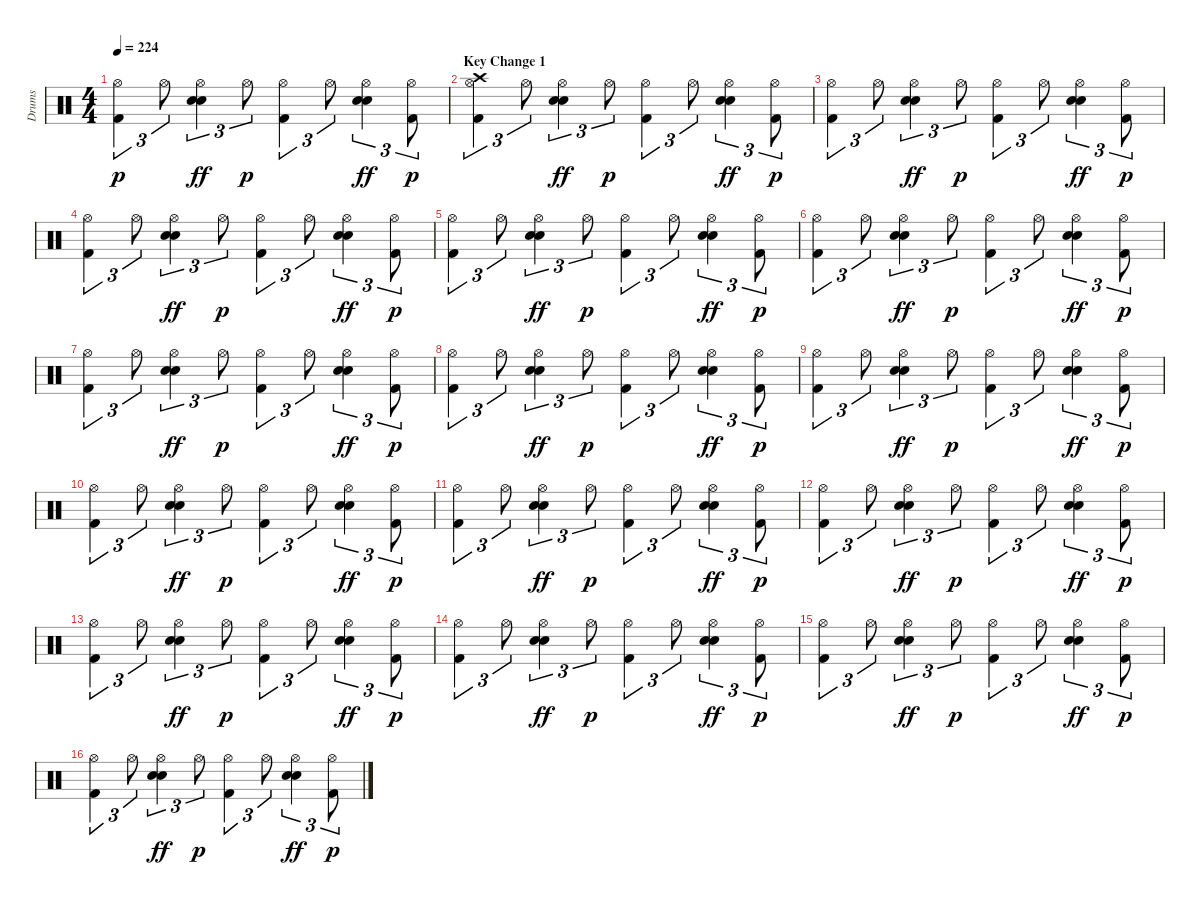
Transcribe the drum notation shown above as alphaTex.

\track ("Drums" "Drums") {instrument percussion}
\staff {score}
\articulation defaults
\ts (4 4)
\tempo 224
\clef neutral
\ks c
("Hi-Hat (open)" "Kick (hit) 2").4{tu (3 2) dy p} "Hi-Hat (open)".8{tu (3 2)} ("Hand Clap (hit)" "Hi-Hat (open)" "Snare (hit) 2").4{tu (3 2) dy ff} "Hi-Hat (open)".8{tu (3 2) dy p} ("Hi-Hat (open)" "Kick (hit) 2").4{tu (3 2)} "Hi-Hat (open)".8{tu (3 2)} ("Hand Clap (hit)" "Hi-Hat (open)" "Snare (hit) 2").4{tu (3 2) dy ff} ("Hi-Hat (open)" "Kick (hit) 2").8{tu (3 2) dy p} |
\section ("" "Key Change 1")
("Crash high (hit)" "Hi-Hat (open)" "Kick (hit) 2").4{tu (3 2)} "Hi-Hat (open)".8{tu (3 2)} ("Hand Clap (hit)" "Hi-Hat (open)" "Snare (hit) 2").4{tu (3 2) dy ff} "Hi-Hat (open)".8{tu (3 2) dy p} ("Hi-Hat (open)" "Kick (hit) 2").4{tu (3 2)} "Hi-Hat (open)".8{tu (3 2)} ("Hand Clap (hit)" "Hi-Hat (open)" "Snare (hit) 2").4{tu (3 2) dy ff} ("Hi-Hat (open)" "Kick (hit) 2").8{tu (3 2) dy p} |
("Hi-Hat (open)" "Kick (hit) 2").4{tu (3 2)} "Hi-Hat (open)".8{tu (3 2)} ("Hand Clap (hit)" "Hi-Hat (open)" "Snare (hit) 2").4{tu (3 2) dy ff} "Hi-Hat (open)".8{tu (3 2) dy p} ("Hi-Hat (open)" "Kick (hit) 2").4{tu (3 2)} "Hi-Hat (open)".8{tu (3 2)} ("Hand Clap (hit)" "Hi-Hat (open)" "Snare (hit) 2").4{tu (3 2) dy ff} ("Hi-Hat (open)" "Kick (hit) 2").8{tu (3 2) dy p} |
("Hi-Hat (open)" "Kick (hit) 2").4{tu (3 2)} "Hi-Hat (open)".8{tu (3 2)} ("Hand Clap (hit)" "Hi-Hat (open)" "Snare (hit) 2").4{tu (3 2) dy ff} "Hi-Hat (open)".8{tu (3 2) dy p} ("Hi-Hat (open)" "Kick (hit) 2").4{tu (3 2)} "Hi-Hat (open)".8{tu (3 2)} ("Hand Clap (hit)" "Hi-Hat (open)" "Snare (hit) 2").4{tu (3 2) dy ff} ("Hi-Hat (open)" "Kick (hit) 2").8{tu (3 2) dy p} |
("Hi-Hat (open)" "Kick (hit) 2").4{tu (3 2)} "Hi-Hat (open)".8{tu (3 2)} ("Hand Clap (hit)" "Hi-Hat (open)" "Snare (hit) 2").4{tu (3 2) dy ff} "Hi-Hat (open)".8{tu (3 2) dy p} ("Hi-Hat (open)" "Kick (hit) 2").4{tu (3 2)} "Hi-Hat (open)".8{tu (3 2)} ("Hand Clap (hit)" "Hi-Hat (open)" "Snare (hit) 2").4{tu (3 2) dy ff} ("Hi-Hat (open)" "Kick (hit) 2").8{tu (3 2) dy p} |
("Hi-Hat (open)" "Kick (hit) 2").4{tu (3 2)} "Hi-Hat (open)".8{tu (3 2)} ("Hand Clap (hit)" "Hi-Hat (open)" "Snare (hit) 2").4{tu (3 2) dy ff} "Hi-Hat (open)".8{tu (3 2) dy p} ("Hi-Hat (open)" "Kick (hit) 2").4{tu (3 2)} "Hi-Hat (open)".8{tu (3 2)} ("Hand Clap (hit)" "Hi-Hat (open)" "Snare (hit) 2").4{tu (3 2) dy ff} ("Hi-Hat (open)" "Kick (hit) 2").8{tu (3 2) dy p} |
("Hi-Hat (open)" "Kick (hit) 2").4{tu (3 2)} "Hi-Hat (open)".8{tu (3 2)} ("Hand Clap (hit)" "Hi-Hat (open)" "Snare (hit) 2").4{tu (3 2) dy ff} "Hi-Hat (open)".8{tu (3 2) dy p} ("Hi-Hat (open)" "Kick (hit) 2").4{tu (3 2)} "Hi-Hat (open)".8{tu (3 2)} ("Hand Clap (hit)" "Hi-Hat (open)" "Snare (hit) 2").4{tu (3 2) dy ff} ("Hi-Hat (open)" "Kick (hit) 2").8{tu (3 2) dy p} |
("Hi-Hat (open)" "Kick (hit) 2").4{tu (3 2)} "Hi-Hat (open)".8{tu (3 2)} ("Hand Clap (hit)" "Hi-Hat (open)" "Snare (hit) 2").4{tu (3 2) dy ff} "Hi-Hat (open)".8{tu (3 2) dy p} ("Hi-Hat (open)" "Kick (hit) 2").4{tu (3 2)} "Hi-Hat (open)".8{tu (3 2)} ("Hand Clap (hit)" "Hi-Hat (open)" "Snare (hit) 2").4{tu (3 2) dy ff} ("Hi-Hat (open)" "Kick (hit) 2").8{tu (3 2) dy p} |
("Hi-Hat (open)" "Kick (hit) 2").4{tu (3 2)} "Hi-Hat (open)".8{tu (3 2)} ("Hand Clap (hit)" "Hi-Hat (open)" "Snare (hit) 2").4{tu (3 2) dy ff} "Hi-Hat (open)".8{tu (3 2) dy p} ("Hi-Hat (open)" "Kick (hit) 2").4{tu (3 2)} "Hi-Hat (open)".8{tu (3 2)} ("Hand Clap (hit)" "Hi-Hat (open)" "Snare (hit) 2").4{tu (3 2) dy ff} ("Hi-Hat (open)" "Kick (hit) 2").8{tu (3 2) dy p} |
("Hi-Hat (open)" "Kick (hit) 2").4{tu (3 2)} "Hi-Hat (open)".8{tu (3 2)} ("Hand Clap (hit)" "Hi-Hat (open)" "Snare (hit) 2").4{tu (3 2) dy ff} "Hi-Hat (open)".8{tu (3 2) dy p} ("Hi-Hat (open)" "Kick (hit) 2").4{tu (3 2)} "Hi-Hat (open)".8{tu (3 2)} ("Hand Clap (hit)" "Hi-Hat (open)" "Snare (hit) 2").4{tu (3 2) dy ff} ("Hi-Hat (open)" "Kick (hit) 2").8{tu (3 2) dy p} |
("Hi-Hat (open)" "Kick (hit) 2").4{tu (3 2)} "Hi-Hat (open)".8{tu (3 2)} ("Hand Clap (hit)" "Hi-Hat (open)" "Snare (hit) 2").4{tu (3 2) dy ff} "Hi-Hat (open)".8{tu (3 2) dy p} ("Hi-Hat (open)" "Kick (hit) 2").4{tu (3 2)} "Hi-Hat (open)".8{tu (3 2)} ("Hand Clap (hit)" "Hi-Hat (open)" "Snare (hit) 2").4{tu (3 2) dy ff} ("Hi-Hat (open)" "Kick (hit) 2").8{tu (3 2) dy p} |
("Hi-Hat (open)" "Kick (hit) 2").4{tu (3 2)} "Hi-Hat (open)".8{tu (3 2)} ("Hand Clap (hit)" "Hi-Hat (open)" "Snare (hit) 2").4{tu (3 2) dy ff} "Hi-Hat (open)".8{tu (3 2) dy p} ("Hi-Hat (open)" "Kick (hit) 2").4{tu (3 2)} "Hi-Hat (open)".8{tu (3 2)} ("Hand Clap (hit)" "Hi-Hat (open)" "Snare (hit) 2").4{tu (3 2) dy ff} ("Hi-Hat (open)" "Kick (hit) 2").8{tu (3 2) dy p} |
("Hi-Hat (open)" "Kick (hit) 2").4{tu (3 2)} "Hi-Hat (open)".8{tu (3 2)} ("Hand Clap (hit)" "Hi-Hat (open)" "Snare (hit) 2").4{tu (3 2) dy ff} "Hi-Hat (open)".8{tu (3 2) dy p} ("Hi-Hat (open)" "Kick (hit) 2").4{tu (3 2)} "Hi-Hat (open)".8{tu (3 2)} ("Hand Clap (hit)" "Hi-Hat (open)" "Snare (hit) 2").4{tu (3 2) dy ff} ("Hi-Hat (open)" "Kick (hit) 2").8{tu (3 2) dy p} |
("Hi-Hat (open)" "Kick (hit) 2").4{tu (3 2)} "Hi-Hat (open)".8{tu (3 2)} ("Hand Clap (hit)" "Hi-Hat (open)" "Snare (hit) 2").4{tu (3 2) dy ff} "Hi-Hat (open)".8{tu (3 2) dy p} ("Hi-Hat (open)" "Kick (hit) 2").4{tu (3 2)} "Hi-Hat (open)".8{tu (3 2)} ("Hand Clap (hit)" "Hi-Hat (open)" "Snare (hit) 2").4{tu (3 2) dy ff} ("Hi-Hat (open)" "Kick (hit) 2").8{tu (3 2) dy p} |
("Hi-Hat (open)" "Kick (hit) 2").4{tu (3 2)} "Hi-Hat (open)".8{tu (3 2)} ("Hand Clap (hit)" "Hi-Hat (open)" "Snare (hit) 2").4{tu (3 2) dy ff} "Hi-Hat (open)".8{tu (3 2) dy p} ("Hi-Hat (open)" "Kick (hit) 2").4{tu (3 2)} "Hi-Hat (open)".8{tu (3 2)} ("Hand Clap (hit)" "Hi-Hat (open)" "Snare (hit) 2").4{tu (3 2) dy ff} ("Hi-Hat (open)" "Kick (hit) 2").8{tu (3 2) dy p} |
("Hi-Hat (open)" "Kick (hit) 2").4{tu (3 2)} "Hi-Hat (open)".8{tu (3 2)} ("Hand Clap (hit)" "Hi-Hat (open)" "Snare (hit) 2").4{tu (3 2) dy ff} "Hi-Hat (open)".8{tu (3 2) dy p} ("Hi-Hat (open)" "Kick (hit) 2").4{tu (3 2)} "Hi-Hat (open)".8{tu (3 2)} ("Hand Clap (hit)" "Hi-Hat (open)" "Snare (hit) 2").4{tu (3 2) dy ff} ("Hi-Hat (open)" "Kick (hit) 2").8{tu (3 2) dy p}
